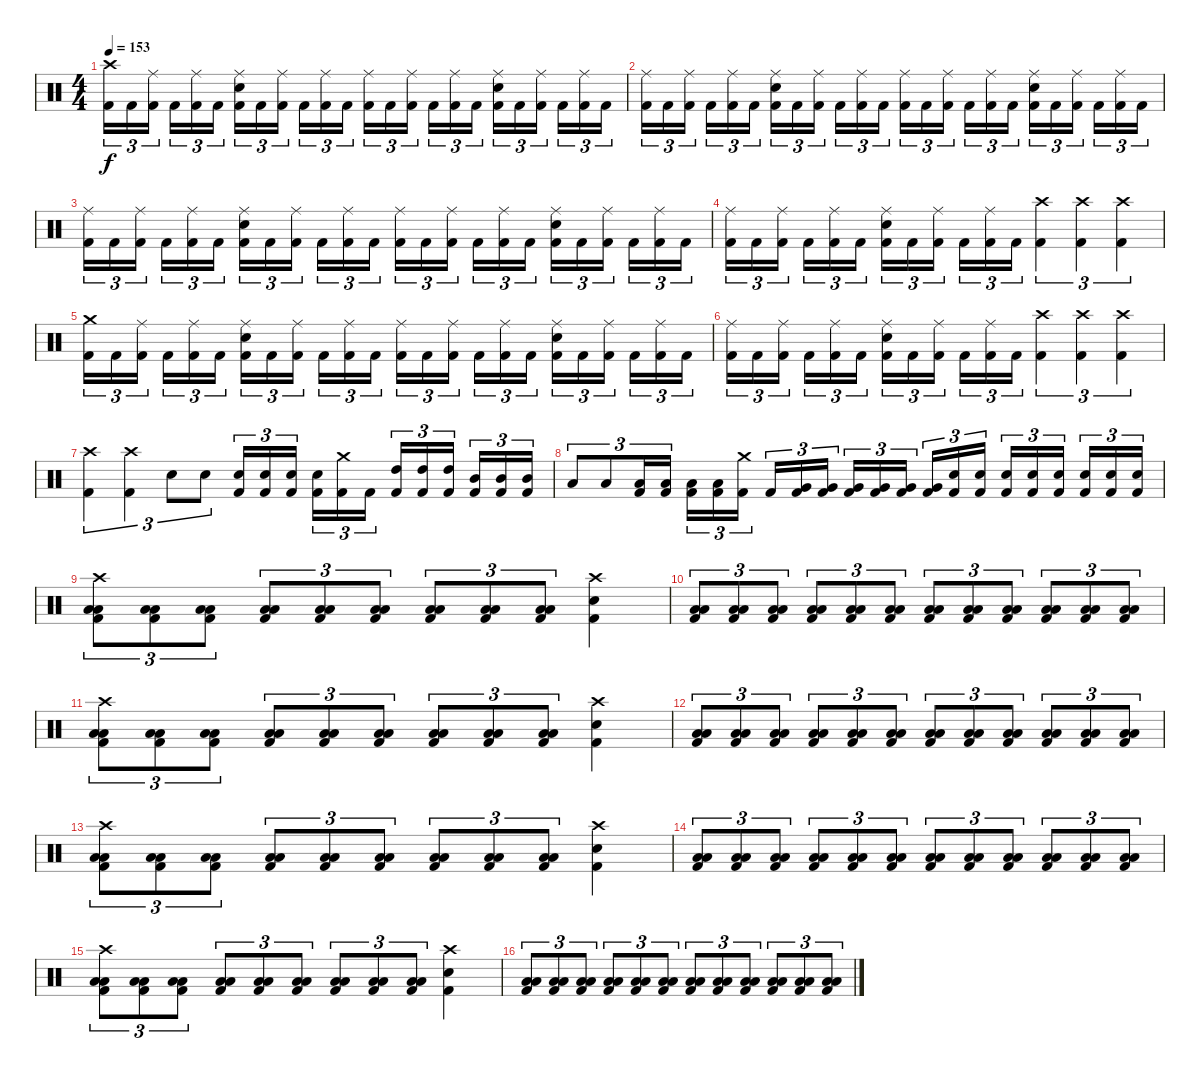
\track "" {instrument percussion}
\staff {score}
\articulation defaults
\ts (4 4)
\section ("" "")
\tempo 153
\clef neutral
\ks c
("Crash high (hit)" "Kick (hit) 2").16{tu (3 2) dy f} "Kick (hit) 2".16{tu (3 2)} ("Ride (middle)" "Kick (hit) 2").16{tu (3 2)} "Kick (hit) 2".16{tu (3 2)} ("Ride (middle)" "Kick (hit) 2").16{tu (3 2)} "Kick (hit) 2".16{tu (3 2)} ("Ride (middle)" "Electric Snare (hit)" "Kick (hit) 2").16{tu (3 2)} "Kick (hit) 2".16{tu (3 2)} ("Ride (middle)" "Kick (hit) 2").16{tu (3 2)} "Kick (hit) 2".16{tu (3 2)} ("Ride (middle)" "Kick (hit) 2").16{tu (3 2)} "Kick (hit) 2".16{tu (3 2)} ("Ride (middle)" "Kick (hit) 2").16{tu (3 2)} "Kick (hit) 2".16{tu (3 2)} ("Ride (middle)" "Kick (hit) 2").16{tu (3 2)} "Kick (hit) 2".16{tu (3 2)} ("Ride (middle)" "Kick (hit) 2").16{tu (3 2)} "Kick (hit) 2".16{tu (3 2)} ("Ride (middle)" "Electric Snare (hit)" "Kick (hit) 2").16{tu (3 2)} "Kick (hit) 2".16{tu (3 2)} ("Ride (middle)" "Kick (hit) 2").16{tu (3 2)} "Kick (hit) 2".16{tu (3 2)} ("Ride (middle)" "Kick (hit) 2").16{tu (3 2)} "Kick (hit) 2".16{tu (3 2)} |
("Ride (middle)" "Kick (hit) 2").16{tu (3 2)} "Kick (hit) 2".16{tu (3 2)} ("Ride (middle)" "Kick (hit) 2").16{tu (3 2)} "Kick (hit) 2".16{tu (3 2)} ("Ride (middle)" "Kick (hit) 2").16{tu (3 2)} "Kick (hit) 2".16{tu (3 2)} ("Ride (middle)" "Electric Snare (hit)" "Kick (hit) 2").16{tu (3 2)} "Kick (hit) 2".16{tu (3 2)} ("Ride (middle)" "Kick (hit) 2").16{tu (3 2)} "Kick (hit) 2".16{tu (3 2)} ("Ride (middle)" "Kick (hit) 2").16{tu (3 2)} "Kick (hit) 2".16{tu (3 2)} ("Ride (middle)" "Kick (hit) 2").16{tu (3 2)} "Kick (hit) 2".16{tu (3 2)} ("Ride (middle)" "Kick (hit) 2").16{tu (3 2)} "Kick (hit) 2".16{tu (3 2)} ("Ride (middle)" "Kick (hit) 2").16{tu (3 2)} "Kick (hit) 2".16{tu (3 2)} ("Ride (middle)" "Electric Snare (hit)" "Kick (hit) 2").16{tu (3 2)} "Kick (hit) 2".16{tu (3 2)} ("Ride (middle)" "Kick (hit) 2").16{tu (3 2)} "Kick (hit) 2".16{tu (3 2)} ("Ride (middle)" "Kick (hit) 2").16{tu (3 2)} "Kick (hit) 2".16{tu (3 2)} |
("Ride (middle)" "Kick (hit) 2").16{tu (3 2)} "Kick (hit) 2".16{tu (3 2)} ("Ride (middle)" "Kick (hit) 2").16{tu (3 2)} "Kick (hit) 2".16{tu (3 2)} ("Ride (middle)" "Kick (hit) 2").16{tu (3 2)} "Kick (hit) 2".16{tu (3 2)} ("Ride (middle)" "Electric Snare (hit)" "Kick (hit) 2").16{tu (3 2)} "Kick (hit) 2".16{tu (3 2)} ("Ride (middle)" "Kick (hit) 2").16{tu (3 2)} "Kick (hit) 2".16{tu (3 2)} ("Ride (middle)" "Kick (hit) 2").16{tu (3 2)} "Kick (hit) 2".16{tu (3 2)} ("Ride (middle)" "Kick (hit) 2").16{tu (3 2)} "Kick (hit) 2".16{tu (3 2)} ("Ride (middle)" "Kick (hit) 2").16{tu (3 2)} "Kick (hit) 2".16{tu (3 2)} ("Ride (middle)" "Kick (hit) 2").16{tu (3 2)} "Kick (hit) 2".16{tu (3 2)} ("Ride (middle)" "Electric Snare (hit)" "Kick (hit) 2").16{tu (3 2)} "Kick (hit) 2".16{tu (3 2)} ("Ride (middle)" "Kick (hit) 2").16{tu (3 2)} "Kick (hit) 2".16{tu (3 2)} ("Ride (middle)" "Kick (hit) 2").16{tu (3 2)} "Kick (hit) 2".16{tu (3 2)} |
("Ride (middle)" "Kick (hit) 2").16{tu (3 2)} "Kick (hit) 2".16{tu (3 2)} ("Ride (middle)" "Kick (hit) 2").16{tu (3 2)} "Kick (hit) 2".16{tu (3 2)} ("Ride (middle)" "Kick (hit) 2").16{tu (3 2)} "Kick (hit) 2".16{tu (3 2)} ("Ride (middle)" "Electric Snare (hit)" "Kick (hit) 2").16{tu (3 2)} "Kick (hit) 2".16{tu (3 2)} ("Ride (middle)" "Kick (hit) 2").16{tu (3 2)} "Kick (hit) 2".16{tu (3 2)} ("Ride (middle)" "Kick (hit) 2").16{tu (3 2)} "Kick (hit) 2".16{tu (3 2)} ("Crash high (hit)" "Kick (hit) 2").4{tu (3 2)} ("Crash high (hit)" "Kick (hit) 2").4{tu (3 2)} ("Crash high (hit)" "Kick (hit) 2").4{tu (3 2)} |
("Crash medium (hit)" "Kick (hit) 2").16{tu (3 2)} "Kick (hit) 2".16{tu (3 2)} ("Ride (middle)" "Kick (hit) 2").16{tu (3 2)} "Kick (hit) 2".16{tu (3 2)} ("Ride (middle)" "Kick (hit) 2").16{tu (3 2)} "Kick (hit) 2".16{tu (3 2)} ("Ride (middle)" "Electric Snare (hit)" "Kick (hit) 2").16{tu (3 2)} "Kick (hit) 2".16{tu (3 2)} ("Ride (middle)" "Kick (hit) 2").16{tu (3 2)} "Kick (hit) 2".16{tu (3 2)} ("Ride (middle)" "Kick (hit) 2").16{tu (3 2)} "Kick (hit) 2".16{tu (3 2)} ("Ride (middle)" "Kick (hit) 2").16{tu (3 2)} "Kick (hit) 2".16{tu (3 2)} ("Ride (middle)" "Kick (hit) 2").16{tu (3 2)} "Kick (hit) 2".16{tu (3 2)} ("Ride (middle)" "Kick (hit) 2").16{tu (3 2)} "Kick (hit) 2".16{tu (3 2)} ("Ride (middle)" "Electric Snare (hit)" "Kick (hit) 2").16{tu (3 2)} "Kick (hit) 2".16{tu (3 2)} ("Ride (middle)" "Kick (hit) 2").16{tu (3 2)} "Kick (hit) 2".16{tu (3 2)} ("Ride (middle)" "Kick (hit) 2").16{tu (3 2)} "Kick (hit) 2".16{tu (3 2)} |
("Ride (middle)" "Kick (hit) 2").16{tu (3 2)} "Kick (hit) 2".16{tu (3 2)} ("Ride (middle)" "Kick (hit) 2").16{tu (3 2)} "Kick (hit) 2".16{tu (3 2)} ("Ride (middle)" "Kick (hit) 2").16{tu (3 2)} "Kick (hit) 2".16{tu (3 2)} ("Ride (middle)" "Electric Snare (hit)" "Kick (hit) 2").16{tu (3 2)} "Kick (hit) 2".16{tu (3 2)} ("Ride (middle)" "Kick (hit) 2").16{tu (3 2)} "Kick (hit) 2".16{tu (3 2)} ("Ride (middle)" "Kick (hit) 2").16{tu (3 2)} "Kick (hit) 2".16{tu (3 2)} ("Crash high (hit)" "Kick (hit) 2").4{tu (3 2)} ("Crash high (hit)" "Kick (hit) 2").4{tu (3 2)} ("Crash high (hit)" "Kick (hit) 2").4{tu (3 2)} |
("Crash high (hit)" "Kick (hit) 2").4{tu (3 2)} ("Crash high (hit)" "Kick (hit) 2").4{tu (3 2)} "Electric Snare (hit)".8{tu (3 2)} "Electric Snare (hit)".8{tu (3 2)} ("Electric Snare (hit)" "Kick (hit) 2").16{tu (3 2)} ("Electric Snare (hit)" "Kick (hit) 2").16{tu (3 2)} ("Electric Snare (hit)" "Kick (hit) 2").16{tu (3 2)} ("Electric Snare (hit)" "Kick (hit) 2").16{tu (3 2)} ("Crash medium (hit)" "Kick (hit) 2").16{tu (3 2)} "Kick (hit) 2".16{tu (3 2)} ("High Tom (hit)" "Kick (hit) 2").16{tu (3 2)} ("High Tom (hit)" "Kick (hit) 2").16{tu (3 2)} ("High Tom (hit)" "Kick (hit) 2").16{tu (3 2)} ("Mid Tom (hit)" "Kick (hit) 2").16{tu (3 2)} ("Mid Tom (hit)" "Kick (hit) 2").16{tu (3 2)} ("Mid Tom (hit)" "Kick (hit) 2").16{tu (3 2)} |
"Low Tom (hit)".8{tu (3 2)} "Low Tom (hit)".8{tu (3 2)} ("Low Tom (hit)" "Kick (hit) 2").16{tu (3 2)} ("Low Tom (hit)" "Kick (hit) 2").16{tu (3 2)} ("Low Tom (hit)" "Kick (hit) 2").16{tu (3 2)} ("Low Tom (hit)" "Kick (hit) 2").16{tu (3 2)} ("Crash medium (hit)" "Kick (hit) 2").16{tu (3 2)} "Kick (hit) 2".16{tu (3 2)} ("Very Low Tom (hit)" "Kick (hit) 2").16{tu (3 2)} ("Very Low Tom (hit)" "Kick (hit) 2").16{tu (3 2)} ("Very Low Tom (hit)" "Kick (hit) 2").16{tu (3 2)} ("Very Low Tom (hit)" "Kick (hit) 2").16{tu (3 2)} ("Very Low Tom (hit)" "Kick (hit) 2").16{tu (3 2)} ("Very Low Tom (hit)" "Kick (hit) 2").16{tu (3 2)} ("Electric Snare (hit)" "Kick (hit) 2").16{tu (3 2)} ("Electric Snare (hit)" "Kick (hit) 2").16{tu (3 2)} ("Electric Snare (hit)" "Kick (hit) 2").16{tu (3 2)} ("Electric Snare (hit)" "Kick (hit) 2").16{tu (3 2)} ("Electric Snare (hit)" "Kick (hit) 2").16{tu (3 2)} ("Electric Snare (hit)" "Kick (hit) 2").16{tu (3 2)} ("Electric Snare (hit)" "Kick (hit) 2").16{tu (3 2)} ("Electric Snare (hit)" "Kick (hit) 2").16{tu (3 2)} |
\section ("" "")
("Crash high (hit)" "Low Floor Tom (hit)" "Low Tom (hit)" "Kick (hit) 2").8{tu (3 2)} ("Low Floor Tom (hit)" "Low Tom (hit)" "Kick (hit) 2").8{tu (3 2)} ("Low Floor Tom (hit)" "Low Tom (hit)" "Kick (hit) 2").8{tu (3 2)} ("Low Floor Tom (hit)" "Low Tom (hit)" "Kick (hit) 2").8{tu (3 2)} ("Low Floor Tom (hit)" "Low Tom (hit)" "Kick (hit) 2").8{tu (3 2)} ("Low Floor Tom (hit)" "Low Tom (hit)" "Kick (hit) 2").8{tu (3 2)} ("Low Floor Tom (hit)" "Low Tom (hit)" "Kick (hit) 2").8{tu (3 2)} ("Low Floor Tom (hit)" "Low Tom (hit)" "Kick (hit) 2").8{tu (3 2)} ("Low Floor Tom (hit)" "Low Tom (hit)" "Kick (hit) 2").8{tu (3 2)} ("Crash high (hit)" "Electric Snare (hit)" "Kick (hit) 2").4 |
("Low Floor Tom (hit)" "Low Tom (hit)" "Kick (hit) 2").8{tu (3 2)} ("Low Floor Tom (hit)" "Low Tom (hit)" "Kick (hit) 2").8{tu (3 2)} ("Low Floor Tom (hit)" "Low Tom (hit)" "Kick (hit) 2").8{tu (3 2)} ("Low Floor Tom (hit)" "Low Tom (hit)" "Kick (hit) 2").8{tu (3 2)} ("Low Floor Tom (hit)" "Low Tom (hit)" "Kick (hit) 2").8{tu (3 2)} ("Low Floor Tom (hit)" "Low Tom (hit)" "Kick (hit) 2").8{tu (3 2)} ("Low Floor Tom (hit)" "Low Tom (hit)" "Kick (hit) 2").8{tu (3 2)} ("Low Floor Tom (hit)" "Low Tom (hit)" "Kick (hit) 2").8{tu (3 2)} ("Low Floor Tom (hit)" "Low Tom (hit)" "Kick (hit) 2").8{tu (3 2)} ("Low Floor Tom (hit)" "Low Tom (hit)" "Kick (hit) 2").8{tu (3 2)} ("Low Floor Tom (hit)" "Low Tom (hit)" "Kick (hit) 2").8{tu (3 2)} ("Low Floor Tom (hit)" "Low Tom (hit)" "Kick (hit) 2").8{tu (3 2)} |
("Crash high (hit)" "Low Floor Tom (hit)" "Low Tom (hit)" "Kick (hit) 2").8{tu (3 2)} ("Low Floor Tom (hit)" "Low Tom (hit)" "Kick (hit) 2").8{tu (3 2)} ("Low Floor Tom (hit)" "Low Tom (hit)" "Kick (hit) 2").8{tu (3 2)} ("Low Floor Tom (hit)" "Low Tom (hit)" "Kick (hit) 2").8{tu (3 2)} ("Low Floor Tom (hit)" "Low Tom (hit)" "Kick (hit) 2").8{tu (3 2)} ("Low Floor Tom (hit)" "Low Tom (hit)" "Kick (hit) 2").8{tu (3 2)} ("Low Floor Tom (hit)" "Low Tom (hit)" "Kick (hit) 2").8{tu (3 2)} ("Low Floor Tom (hit)" "Low Tom (hit)" "Kick (hit) 2").8{tu (3 2)} ("Low Floor Tom (hit)" "Low Tom (hit)" "Kick (hit) 2").8{tu (3 2)} ("Crash high (hit)" "Electric Snare (hit)" "Kick (hit) 2").4 |
("Low Floor Tom (hit)" "Low Tom (hit)" "Kick (hit) 2").8{tu (3 2)} ("Low Floor Tom (hit)" "Low Tom (hit)" "Kick (hit) 2").8{tu (3 2)} ("Low Floor Tom (hit)" "Low Tom (hit)" "Kick (hit) 2").8{tu (3 2)} ("Low Floor Tom (hit)" "Low Tom (hit)" "Kick (hit) 2").8{tu (3 2)} ("Low Floor Tom (hit)" "Low Tom (hit)" "Kick (hit) 2").8{tu (3 2)} ("Low Floor Tom (hit)" "Low Tom (hit)" "Kick (hit) 2").8{tu (3 2)} ("Low Floor Tom (hit)" "Low Tom (hit)" "Kick (hit) 2").8{tu (3 2)} ("Low Floor Tom (hit)" "Low Tom (hit)" "Kick (hit) 2").8{tu (3 2)} ("Low Floor Tom (hit)" "Low Tom (hit)" "Kick (hit) 2").8{tu (3 2)} ("Low Floor Tom (hit)" "Low Tom (hit)" "Kick (hit) 2").8{tu (3 2)} ("Low Floor Tom (hit)" "Low Tom (hit)" "Kick (hit) 2").8{tu (3 2)} ("Low Floor Tom (hit)" "Low Tom (hit)" "Kick (hit) 2").8{tu (3 2)} |
("Crash high (hit)" "Low Floor Tom (hit)" "Low Tom (hit)" "Kick (hit) 2").8{tu (3 2)} ("Low Floor Tom (hit)" "Low Tom (hit)" "Kick (hit) 2").8{tu (3 2)} ("Low Floor Tom (hit)" "Low Tom (hit)" "Kick (hit) 2").8{tu (3 2)} ("Low Floor Tom (hit)" "Low Tom (hit)" "Kick (hit) 2").8{tu (3 2)} ("Low Floor Tom (hit)" "Low Tom (hit)" "Kick (hit) 2").8{tu (3 2)} ("Low Floor Tom (hit)" "Low Tom (hit)" "Kick (hit) 2").8{tu (3 2)} ("Low Floor Tom (hit)" "Low Tom (hit)" "Kick (hit) 2").8{tu (3 2)} ("Low Floor Tom (hit)" "Low Tom (hit)" "Kick (hit) 2").8{tu (3 2)} ("Low Floor Tom (hit)" "Low Tom (hit)" "Kick (hit) 2").8{tu (3 2)} ("Crash high (hit)" "Electric Snare (hit)" "Kick (hit) 2").4 |
("Low Floor Tom (hit)" "Low Tom (hit)" "Kick (hit) 2").8{tu (3 2)} ("Low Floor Tom (hit)" "Low Tom (hit)" "Kick (hit) 2").8{tu (3 2)} ("Low Floor Tom (hit)" "Low Tom (hit)" "Kick (hit) 2").8{tu (3 2)} ("Low Floor Tom (hit)" "Low Tom (hit)" "Kick (hit) 2").8{tu (3 2)} ("Low Floor Tom (hit)" "Low Tom (hit)" "Kick (hit) 2").8{tu (3 2)} ("Low Floor Tom (hit)" "Low Tom (hit)" "Kick (hit) 2").8{tu (3 2)} ("Low Floor Tom (hit)" "Low Tom (hit)" "Kick (hit) 2").8{tu (3 2)} ("Low Floor Tom (hit)" "Low Tom (hit)" "Kick (hit) 2").8{tu (3 2)} ("Low Floor Tom (hit)" "Low Tom (hit)" "Kick (hit) 2").8{tu (3 2)} ("Low Floor Tom (hit)" "Low Tom (hit)" "Kick (hit) 2").8{tu (3 2)} ("Low Floor Tom (hit)" "Low Tom (hit)" "Kick (hit) 2").8{tu (3 2)} ("Low Floor Tom (hit)" "Low Tom (hit)" "Kick (hit) 2").8{tu (3 2)} |
("Crash high (hit)" "Low Floor Tom (hit)" "Low Tom (hit)" "Kick (hit) 2").8{tu (3 2)} ("Low Floor Tom (hit)" "Low Tom (hit)" "Kick (hit) 2").8{tu (3 2)} ("Low Floor Tom (hit)" "Low Tom (hit)" "Kick (hit) 2").8{tu (3 2)} ("Low Floor Tom (hit)" "Low Tom (hit)" "Kick (hit) 2").8{tu (3 2)} ("Low Floor Tom (hit)" "Low Tom (hit)" "Kick (hit) 2").8{tu (3 2)} ("Low Floor Tom (hit)" "Low Tom (hit)" "Kick (hit) 2").8{tu (3 2)} ("Low Floor Tom (hit)" "Low Tom (hit)" "Kick (hit) 2").8{tu (3 2)} ("Low Floor Tom (hit)" "Low Tom (hit)" "Kick (hit) 2").8{tu (3 2)} ("Low Floor Tom (hit)" "Low Tom (hit)" "Kick (hit) 2").8{tu (3 2)} ("Crash high (hit)" "Electric Snare (hit)" "Kick (hit) 2").4 |
("Low Floor Tom (hit)" "Low Tom (hit)" "Kick (hit) 2").8{tu (3 2)} ("Low Floor Tom (hit)" "Low Tom (hit)" "Kick (hit) 2").8{tu (3 2)} ("Low Floor Tom (hit)" "Low Tom (hit)" "Kick (hit) 2").8{tu (3 2)} ("Low Floor Tom (hit)" "Low Tom (hit)" "Kick (hit) 2").8{tu (3 2)} ("Low Floor Tom (hit)" "Low Tom (hit)" "Kick (hit) 2").8{tu (3 2)} ("Low Floor Tom (hit)" "Low Tom (hit)" "Kick (hit) 2").8{tu (3 2)} ("Low Floor Tom (hit)" "Low Tom (hit)" "Kick (hit) 2").8{tu (3 2)} ("Low Floor Tom (hit)" "Low Tom (hit)" "Kick (hit) 2").8{tu (3 2)} ("Low Floor Tom (hit)" "Low Tom (hit)" "Kick (hit) 2").8{tu (3 2)} ("Low Floor Tom (hit)" "Low Tom (hit)" "Kick (hit) 2").8{tu (3 2)} ("Low Floor Tom (hit)" "Low Tom (hit)" "Kick (hit) 2").8{tu (3 2)} ("Low Floor Tom (hit)" "Low Tom (hit)" "Kick (hit) 2").8{tu (3 2)}
